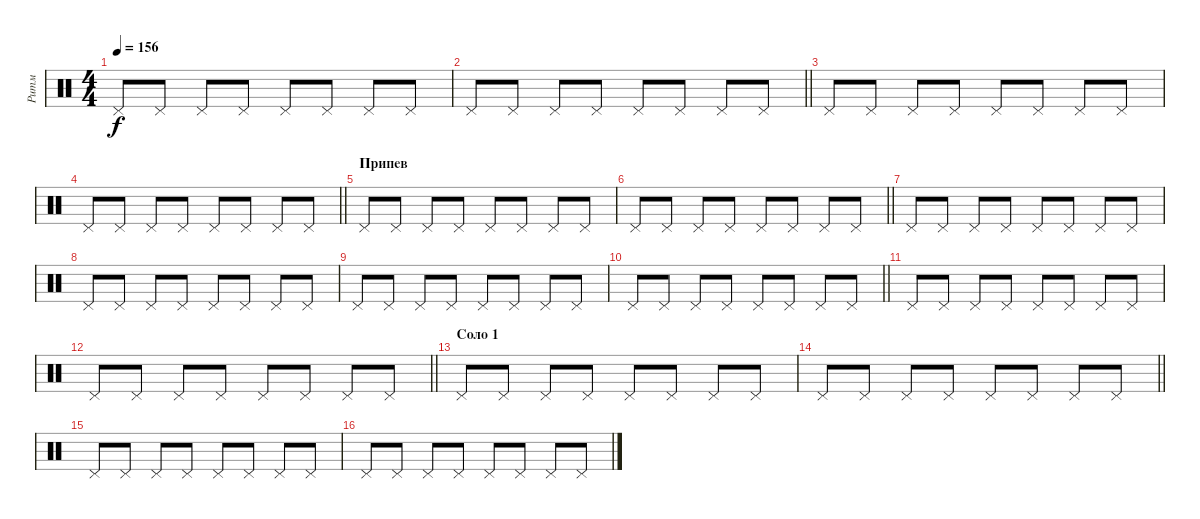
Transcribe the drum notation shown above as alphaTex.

\track ("Ритм" "Ритм") {instrument percussion}
\staff {score}
\articulation defaults
\ts (4 4)
\tempo 156
\clef neutral
\ks c "Pedal Hi-Hat (hit)".8{dy f} "Pedal Hi-Hat (hit)".8 "Pedal Hi-Hat (hit)".8 "Pedal Hi-Hat (hit)".8 "Pedal Hi-Hat (hit)".8 "Pedal Hi-Hat (hit)".8 "Pedal Hi-Hat (hit)".8 "Pedal Hi-Hat (hit)".8
|
\barLineRight lightlight "Pedal Hi-Hat (hit)".8 "Pedal Hi-Hat (hit)".8 "Pedal Hi-Hat (hit)".8 "Pedal Hi-Hat (hit)".8 "Pedal Hi-Hat (hit)".8 "Pedal Hi-Hat (hit)".8 "Pedal Hi-Hat (hit)".8 "Pedal Hi-Hat (hit)".8
|
"Pedal Hi-Hat (hit)".8 "Pedal Hi-Hat (hit)".8 "Pedal Hi-Hat (hit)".8 "Pedal Hi-Hat (hit)".8 "Pedal Hi-Hat (hit)".8 "Pedal Hi-Hat (hit)".8 "Pedal Hi-Hat (hit)".8 "Pedal Hi-Hat (hit)".8 |
\barLineRight lightlight "Pedal Hi-Hat (hit)".8 "Pedal Hi-Hat (hit)".8 "Pedal Hi-Hat (hit)".8 "Pedal Hi-Hat (hit)".8 "Pedal Hi-Hat (hit)".8 "Pedal Hi-Hat (hit)".8 "Pedal Hi-Hat (hit)".8 "Pedal Hi-Hat (hit)".8
|
\section ("" "Припев")
"Pedal Hi-Hat (hit)".8 "Pedal Hi-Hat (hit)".8 "Pedal Hi-Hat (hit)".8 "Pedal Hi-Hat (hit)".8 "Pedal Hi-Hat (hit)".8 "Pedal Hi-Hat (hit)".8 "Pedal Hi-Hat (hit)".8 "Pedal Hi-Hat (hit)".8 |
\barLineRight lightlight "Pedal Hi-Hat (hit)".8 "Pedal Hi-Hat (hit)".8 "Pedal Hi-Hat (hit)".8 "Pedal Hi-Hat (hit)".8 "Pedal Hi-Hat (hit)".8 "Pedal Hi-Hat (hit)".8 "Pedal Hi-Hat (hit)".8 "Pedal Hi-Hat (hit)".8
|
"Pedal Hi-Hat (hit)".8 "Pedal Hi-Hat (hit)".8 "Pedal Hi-Hat (hit)".8 "Pedal Hi-Hat (hit)".8 "Pedal Hi-Hat (hit)".8 "Pedal Hi-Hat (hit)".8 "Pedal Hi-Hat (hit)".8 "Pedal Hi-Hat (hit)".8 |
"Pedal Hi-Hat (hit)".8 "Pedal Hi-Hat (hit)".8 "Pedal Hi-Hat (hit)".8 "Pedal Hi-Hat (hit)".8 "Pedal Hi-Hat (hit)".8 "Pedal Hi-Hat (hit)".8 "Pedal Hi-Hat (hit)".8 "Pedal Hi-Hat (hit)".8 |
"Pedal Hi-Hat (hit)".8 "Pedal Hi-Hat (hit)".8 "Pedal Hi-Hat (hit)".8 "Pedal Hi-Hat (hit)".8 "Pedal Hi-Hat (hit)".8 "Pedal Hi-Hat (hit)".8 "Pedal Hi-Hat (hit)".8 "Pedal Hi-Hat (hit)".8 |
\barLineRight lightlight "Pedal Hi-Hat (hit)".8 "Pedal Hi-Hat (hit)".8 "Pedal Hi-Hat (hit)".8 "Pedal Hi-Hat (hit)".8 "Pedal Hi-Hat (hit)".8 "Pedal Hi-Hat (hit)".8 "Pedal Hi-Hat (hit)".8 "Pedal Hi-Hat (hit)".8
|
"Pedal Hi-Hat (hit)".8 "Pedal Hi-Hat (hit)".8 "Pedal Hi-Hat (hit)".8 "Pedal Hi-Hat (hit)".8 "Pedal Hi-Hat (hit)".8 "Pedal Hi-Hat (hit)".8 "Pedal Hi-Hat (hit)".8 "Pedal Hi-Hat (hit)".8 |
\barLineRight lightlight "Pedal Hi-Hat (hit)".8 "Pedal Hi-Hat (hit)".8 "Pedal Hi-Hat (hit)".8 "Pedal Hi-Hat (hit)".8 "Pedal Hi-Hat (hit)".8 "Pedal Hi-Hat (hit)".8 "Pedal Hi-Hat (hit)".8 "Pedal Hi-Hat (hit)".8
|
\section ("" "Соло 1")
"Pedal Hi-Hat (hit)".8 "Pedal Hi-Hat (hit)".8 "Pedal Hi-Hat (hit)".8 "Pedal Hi-Hat (hit)".8 "Pedal Hi-Hat (hit)".8 "Pedal Hi-Hat (hit)".8 "Pedal Hi-Hat (hit)".8 "Pedal Hi-Hat (hit)".8 |
\barLineRight lightlight "Pedal Hi-Hat (hit)".8 "Pedal Hi-Hat (hit)".8 "Pedal Hi-Hat (hit)".8 "Pedal Hi-Hat (hit)".8 "Pedal Hi-Hat (hit)".8 "Pedal Hi-Hat (hit)".8 "Pedal Hi-Hat (hit)".8 "Pedal Hi-Hat (hit)".8
|
"Pedal Hi-Hat (hit)".8 "Pedal Hi-Hat (hit)".8 "Pedal Hi-Hat (hit)".8 "Pedal Hi-Hat (hit)".8 "Pedal Hi-Hat (hit)".8 "Pedal Hi-Hat (hit)".8 "Pedal Hi-Hat (hit)".8 "Pedal Hi-Hat (hit)".8 |
"Pedal Hi-Hat (hit)".8 "Pedal Hi-Hat (hit)".8 "Pedal Hi-Hat (hit)".8 "Pedal Hi-Hat (hit)".8 "Pedal Hi-Hat (hit)".8 "Pedal Hi-Hat (hit)".8 "Pedal Hi-Hat (hit)".8 "Pedal Hi-Hat (hit)".8
